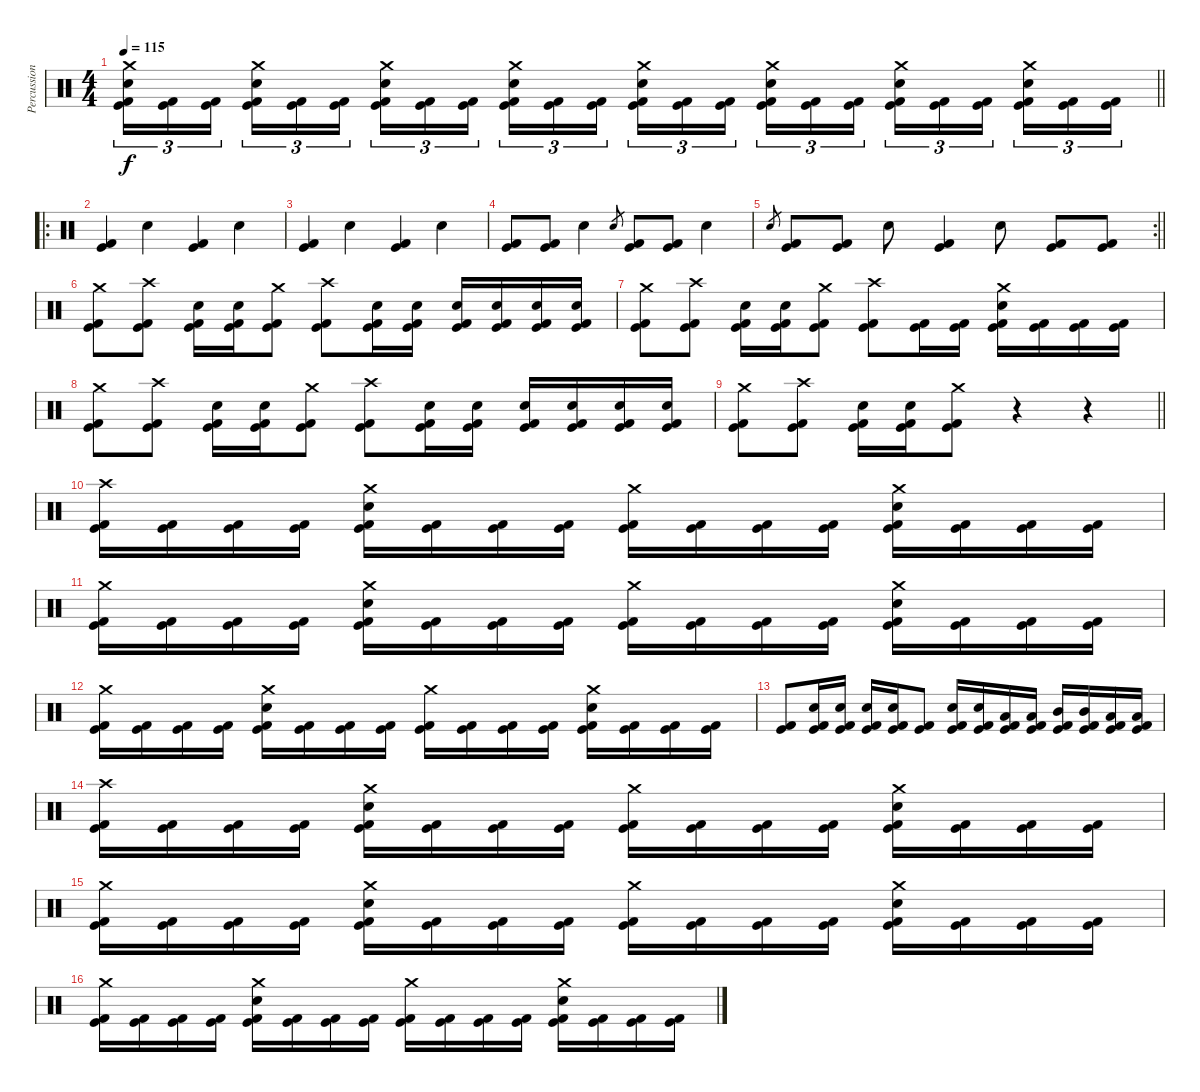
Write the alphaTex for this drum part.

\track ("Percussion" "Percussion") {instrument percussion}
\staff {score}
\articulation defaults
\ts (4 4)
\tempo 115
\clef neutral
\barLineRight lightlight
\ks c
("Crash medium (hit)" "Electric Snare (hit)" "Kick (hit)" "Kick (hit) 2").16{tu (3 2) dy f} ("Kick (hit)" "Kick (hit) 2").16{tu (3 2)} ("Kick (hit)" "Kick (hit) 2").16{tu (3 2) beam splitsecondary} ("Crash medium (hit)" "Electric Snare (hit)" "Kick (hit)" "Kick (hit) 2").16{tu (3 2)} ("Kick (hit)" "Kick (hit) 2").16{tu (3 2)} ("Kick (hit)" "Kick (hit) 2").16{tu (3 2)} ("Crash medium (hit)" "Electric Snare (hit)" "Kick (hit)" "Kick (hit) 2").16{tu (3 2)} ("Kick (hit)" "Kick (hit) 2").16{tu (3 2)} ("Kick (hit)" "Kick (hit) 2").16{tu (3 2) beam splitsecondary} ("Crash medium (hit)" "Electric Snare (hit)" "Kick (hit)" "Kick (hit) 2").16{tu (3 2)} ("Kick (hit)" "Kick (hit) 2").16{tu (3 2)} ("Kick (hit)" "Kick (hit) 2").16{tu (3 2)} ("Crash medium (hit)" "Electric Snare (hit)" "Kick (hit)" "Kick (hit) 2").16{tu (3 2)} ("Kick (hit)" "Kick (hit) 2").16{tu (3 2)} ("Kick (hit)" "Kick (hit) 2").16{tu (3 2) beam splitsecondary} ("Crash medium (hit)" "Electric Snare (hit)" "Kick (hit)" "Kick (hit) 2").16{tu (3 2)} ("Kick (hit)" "Kick (hit) 2").16{tu (3 2)} ("Kick (hit)" "Kick (hit) 2").16{tu (3 2)} ("Crash medium (hit)" "Electric Snare (hit)" "Kick (hit)" "Kick (hit) 2").16{tu (3 2)} ("Kick (hit)" "Kick (hit) 2").16{tu (3 2)} ("Kick (hit)" "Kick (hit) 2").16{tu (3 2) beam splitsecondary} ("Crash medium (hit)" "Electric Snare (hit)" "Kick (hit)" "Kick (hit) 2").16{tu (3 2)} ("Kick (hit)" "Kick (hit) 2").16{tu (3 2)} ("Kick (hit)" "Kick (hit) 2").16{tu (3 2)} |
\ro
\section ("" "")
("Kick (hit)" "Kick (hit) 2").4 "Electric Snare (hit)".4 ("Kick (hit)" "Kick (hit) 2").4 "Electric Snare (hit)".4 |
("Kick (hit)" "Kick (hit) 2").4 "Electric Snare (hit)".4 ("Kick (hit)" "Kick (hit) 2").4 "Electric Snare (hit)".4 |
("Kick (hit)" "Kick (hit) 2").8 ("Kick (hit)" "Kick (hit) 2").8 "Electric Snare (hit)".4 "Electric Snare (hit)".8{gr} ("Kick (hit)" "Kick (hit) 2").8 ("Kick (hit)" "Kick (hit) 2").8 "Electric Snare (hit)".4 |
\rc 2
\barLineRight lightlight "Electric Snare (hit)".8{gr}
("Kick (hit)" "Kick (hit) 2").8 ("Kick (hit)" "Kick (hit) 2").8 "Electric Snare (hit)".8 ("Kick (hit)" "Kick (hit) 2").4 "Electric Snare (hit)".8 ("Kick (hit)" "Kick (hit) 2").8 ("Kick (hit)" "Kick (hit) 2").8 |
\section ("" "")
("Crash medium (hit)" "Kick (hit)" "Kick (hit) 2").8 ("Crash high (hit)" "Kick (hit)" "Kick (hit) 2").8 ("Electric Snare (hit)" "Kick (hit)" "Kick (hit) 2").16 ("Electric Snare (hit)" "Kick (hit)" "Kick (hit) 2").16 ("Crash medium (hit)" "Kick (hit)" "Kick (hit) 2").8 ("Crash high (hit)" "Kick (hit)" "Kick (hit) 2").8 ("Electric Snare (hit)" "Kick (hit)" "Kick (hit) 2").16 ("Electric Snare (hit)" "Kick (hit)" "Kick (hit) 2").16 ("Electric Snare (hit)" "Kick (hit)" "Kick (hit) 2").16 ("Electric Snare (hit)" "Kick (hit)" "Kick (hit) 2").16 ("Electric Snare (hit)" "Kick (hit)" "Kick (hit) 2").16 ("Electric Snare (hit)" "Kick (hit)" "Kick (hit) 2").16 |
("Crash medium (hit)" "Kick (hit)" "Kick (hit) 2").8 ("Crash high (hit)" "Kick (hit)" "Kick (hit) 2").8 ("Electric Snare (hit)" "Kick (hit)" "Kick (hit) 2").16 ("Electric Snare (hit)" "Kick (hit)" "Kick (hit) 2").16 ("Crash medium (hit)" "Kick (hit)" "Kick (hit) 2").8 ("Crash high (hit)" "Kick (hit)" "Kick (hit) 2").8 ("Kick (hit)" "Kick (hit) 2").16 ("Kick (hit)" "Kick (hit) 2").16 ("Crash medium (hit)" "Electric Snare (hit)" "Kick (hit)" "Kick (hit) 2").16 ("Kick (hit)" "Kick (hit) 2").16 ("Kick (hit)" "Kick (hit) 2").16 ("Kick (hit)" "Kick (hit) 2").16 |
("Crash medium (hit)" "Kick (hit)" "Kick (hit) 2").8 ("Crash high (hit)" "Kick (hit)" "Kick (hit) 2").8 ("Electric Snare (hit)" "Kick (hit)" "Kick (hit) 2").16 ("Electric Snare (hit)" "Kick (hit)" "Kick (hit) 2").16 ("Crash medium (hit)" "Kick (hit)" "Kick (hit) 2").8 ("Crash high (hit)" "Kick (hit)" "Kick (hit) 2").8 ("Electric Snare (hit)" "Kick (hit)" "Kick (hit) 2").16 ("Electric Snare (hit)" "Kick (hit)" "Kick (hit) 2").16 ("Electric Snare (hit)" "Kick (hit)" "Kick (hit) 2").16 ("Electric Snare (hit)" "Kick (hit)" "Kick (hit) 2").16 ("Electric Snare (hit)" "Kick (hit)" "Kick (hit) 2").16 ("Electric Snare (hit)" "Kick (hit)" "Kick (hit) 2").16 |
\barLineRight lightlight
("Crash medium (hit)" "Kick (hit)" "Kick (hit) 2").8 ("Crash high (hit)" "Kick (hit)" "Kick (hit) 2").8 ("Electric Snare (hit)" "Kick (hit)" "Kick (hit) 2").16 ("Electric Snare (hit)" "Kick (hit)" "Kick (hit) 2").16 ("Crash medium (hit)" "Kick (hit)" "Kick (hit) 2").8 r.4 r.4 |
\section ("" "")
("Crash high (hit)" "Kick (hit)" "Kick (hit) 2").16 ("Kick (hit)" "Kick (hit) 2").16 ("Kick (hit)" "Kick (hit) 2").16 ("Kick (hit)" "Kick (hit) 2").16 ("Crash medium (hit)" "Electric Snare (hit)" "Kick (hit)" "Kick (hit) 2").16 ("Kick (hit)" "Kick (hit) 2").16 ("Kick (hit)" "Kick (hit) 2").16 ("Kick (hit)" "Kick (hit) 2").16 ("Crash medium (hit)" "Kick (hit)" "Kick (hit) 2").16 ("Kick (hit)" "Kick (hit) 2").16 ("Kick (hit)" "Kick (hit) 2").16 ("Kick (hit)" "Kick (hit) 2").16 ("Crash medium (hit)" "Electric Snare (hit)" "Kick (hit)" "Kick (hit) 2").16 ("Kick (hit)" "Kick (hit) 2").16 ("Kick (hit)" "Kick (hit) 2").16 ("Kick (hit)" "Kick (hit) 2").16 |
("Crash medium (hit)" "Kick (hit)" "Kick (hit) 2").16 ("Kick (hit)" "Kick (hit) 2").16 ("Kick (hit)" "Kick (hit) 2").16 ("Kick (hit)" "Kick (hit) 2").16 ("Crash medium (hit)" "Electric Snare (hit)" "Kick (hit)" "Kick (hit) 2").16 ("Kick (hit)" "Kick (hit) 2").16 ("Kick (hit)" "Kick (hit) 2").16 ("Kick (hit)" "Kick (hit) 2").16 ("Crash medium (hit)" "Kick (hit)" "Kick (hit) 2").16 ("Kick (hit)" "Kick (hit) 2").16 ("Kick (hit)" "Kick (hit) 2").16 ("Kick (hit)" "Kick (hit) 2").16 ("Crash medium (hit)" "Electric Snare (hit)" "Kick (hit)" "Kick (hit) 2").16 ("Kick (hit)" "Kick (hit) 2").16 ("Kick (hit)" "Kick (hit) 2").16 ("Kick (hit)" "Kick (hit) 2").16 |
("Crash medium (hit)" "Kick (hit)" "Kick (hit) 2").16 ("Kick (hit)" "Kick (hit) 2").16 ("Kick (hit)" "Kick (hit) 2").16 ("Kick (hit)" "Kick (hit) 2").16 ("Crash medium (hit)" "Electric Snare (hit)" "Kick (hit)" "Kick (hit) 2").16 ("Kick (hit)" "Kick (hit) 2").16 ("Kick (hit)" "Kick (hit) 2").16 ("Kick (hit)" "Kick (hit) 2").16 ("Crash medium (hit)" "Kick (hit)" "Kick (hit) 2").16 ("Kick (hit)" "Kick (hit) 2").16 ("Kick (hit)" "Kick (hit) 2").16 ("Kick (hit)" "Kick (hit) 2").16 ("Crash medium (hit)" "Electric Snare (hit)" "Kick (hit)" "Kick (hit) 2").16 ("Kick (hit)" "Kick (hit) 2").16 ("Kick (hit)" "Kick (hit) 2").16 ("Kick (hit)" "Kick (hit) 2").16 |
("Kick (hit)" "Kick (hit) 2").8 ("Electric Snare (hit)" "Kick (hit)" "Kick (hit) 2").16 ("Electric Snare (hit)" "Kick (hit)" "Kick (hit) 2").16 ("Electric Snare (hit)" "Kick (hit)" "Kick (hit) 2").16 ("Electric Snare (hit)" "Kick (hit)" "Kick (hit) 2").16 ("Kick (hit)" "Kick (hit) 2").8 ("Electric Snare (hit)" "Kick (hit)" "Kick (hit) 2").16 ("Electric Snare (hit)" "Kick (hit)" "Kick (hit) 2").16 ("Low Tom (hit)" "Kick (hit)" "Kick (hit) 2").16 ("Low Tom (hit)" "Kick (hit)" "Kick (hit) 2").16 ("Mid Tom (hit)" "Kick (hit)" "Kick (hit) 2").16 ("Mid Tom (hit)" "Kick (hit)" "Kick (hit) 2").16 ("Low Tom (hit)" "Kick (hit)" "Kick (hit) 2").16 ("Low Tom (hit)" "Kick (hit)" "Kick (hit) 2").16 |
("Crash high (hit)" "Kick (hit)" "Kick (hit) 2").16 ("Kick (hit)" "Kick (hit) 2").16 ("Kick (hit)" "Kick (hit) 2").16 ("Kick (hit)" "Kick (hit) 2").16 ("Crash medium (hit)" "Electric Snare (hit)" "Kick (hit)" "Kick (hit) 2").16 ("Kick (hit)" "Kick (hit) 2").16 ("Kick (hit)" "Kick (hit) 2").16 ("Kick (hit)" "Kick (hit) 2").16 ("Crash medium (hit)" "Kick (hit)" "Kick (hit) 2").16 ("Kick (hit)" "Kick (hit) 2").16 ("Kick (hit)" "Kick (hit) 2").16 ("Kick (hit)" "Kick (hit) 2").16 ("Crash medium (hit)" "Electric Snare (hit)" "Kick (hit)" "Kick (hit) 2").16 ("Kick (hit)" "Kick (hit) 2").16 ("Kick (hit)" "Kick (hit) 2").16 ("Kick (hit)" "Kick (hit) 2").16 |
("Crash medium (hit)" "Kick (hit)" "Kick (hit) 2").16 ("Kick (hit)" "Kick (hit) 2").16 ("Kick (hit)" "Kick (hit) 2").16 ("Kick (hit)" "Kick (hit) 2").16 ("Crash medium (hit)" "Electric Snare (hit)" "Kick (hit)" "Kick (hit) 2").16 ("Kick (hit)" "Kick (hit) 2").16 ("Kick (hit)" "Kick (hit) 2").16 ("Kick (hit)" "Kick (hit) 2").16 ("Crash medium (hit)" "Kick (hit)" "Kick (hit) 2").16 ("Kick (hit)" "Kick (hit) 2").16 ("Kick (hit)" "Kick (hit) 2").16 ("Kick (hit)" "Kick (hit) 2").16 ("Crash medium (hit)" "Electric Snare (hit)" "Kick (hit)" "Kick (hit) 2").16 ("Kick (hit)" "Kick (hit) 2").16 ("Kick (hit)" "Kick (hit) 2").16 ("Kick (hit)" "Kick (hit) 2").16 |
("Crash medium (hit)" "Kick (hit)" "Kick (hit) 2").16 ("Kick (hit)" "Kick (hit) 2").16 ("Kick (hit)" "Kick (hit) 2").16 ("Kick (hit)" "Kick (hit) 2").16 ("Crash medium (hit)" "Electric Snare (hit)" "Kick (hit)" "Kick (hit) 2").16 ("Kick (hit)" "Kick (hit) 2").16 ("Kick (hit)" "Kick (hit) 2").16 ("Kick (hit)" "Kick (hit) 2").16 ("Crash medium (hit)" "Kick (hit)" "Kick (hit) 2").16 ("Kick (hit)" "Kick (hit) 2").16 ("Kick (hit)" "Kick (hit) 2").16 ("Kick (hit)" "Kick (hit) 2").16 ("Crash medium (hit)" "Electric Snare (hit)" "Kick (hit)" "Kick (hit) 2").16 ("Kick (hit)" "Kick (hit) 2").16 ("Kick (hit)" "Kick (hit) 2").16 ("Kick (hit)" "Kick (hit) 2").16
